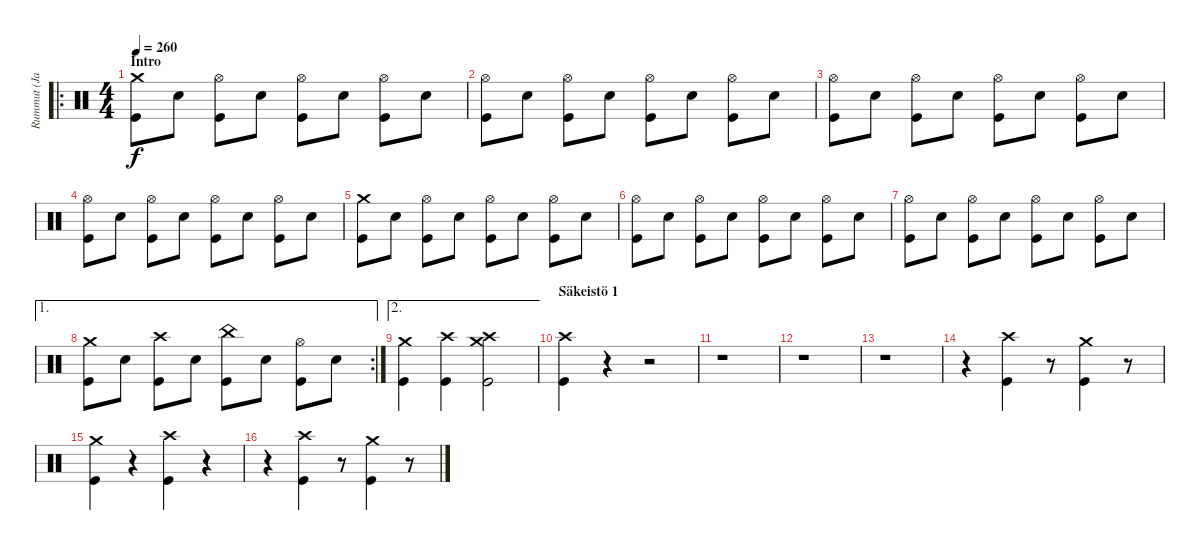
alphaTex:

\track ("Rummut (Janne)" "Rummut (Ja") {instrument percussion}
\staff {score}
\articulation defaults
\ro
\ts (4 4)
\section ("" "Intro")
\tempo 260
\clef neutral
\ks c
("Crash medium (hit)" "Kick (hit)").8{dy f} "Snare (hit) 2".8 ("Hi-Hat (open)" "Kick (hit)").8 "Snare (hit) 2".8 ("Hi-Hat (open)" "Kick (hit)").8 "Snare (hit) 2".8 ("Hi-Hat (open)" "Kick (hit)").8 "Snare (hit) 2".8 |
("Hi-Hat (open)" "Kick (hit)").8 "Snare (hit) 2".8 ("Hi-Hat (open)" "Kick (hit)").8 "Snare (hit) 2".8 ("Hi-Hat (open)" "Kick (hit)").8 "Snare (hit) 2".8 ("Hi-Hat (open)" "Kick (hit)").8 "Snare (hit) 2".8 |
("Hi-Hat (open)" "Kick (hit)").8 "Snare (hit) 2".8 ("Hi-Hat (open)" "Kick (hit)").8 "Snare (hit) 2".8 ("Hi-Hat (open)" "Kick (hit)").8 "Snare (hit) 2".8 ("Hi-Hat (open)" "Kick (hit)").8 "Snare (hit) 2".8 |
("Hi-Hat (open)" "Kick (hit)").8 "Snare (hit) 2".8 ("Hi-Hat (open)" "Kick (hit)").8 "Snare (hit) 2".8 ("Hi-Hat (open)" "Kick (hit)").8 "Snare (hit) 2".8 ("Hi-Hat (open)" "Kick (hit)").8 "Snare (hit) 2".8 |
("Crash medium (hit)" "Kick (hit)").8 "Snare (hit) 2".8 ("Hi-Hat (open)" "Kick (hit)").8 "Snare (hit) 2".8 ("Hi-Hat (open)" "Kick (hit)").8 "Snare (hit) 2".8 ("Hi-Hat (open)" "Kick (hit)").8 "Snare (hit) 2".8 |
("Hi-Hat (open)" "Kick (hit)").8 "Snare (hit) 2".8 ("Hi-Hat (open)" "Kick (hit)").8 "Snare (hit) 2".8 ("Hi-Hat (open)" "Kick (hit)").8 "Snare (hit) 2".8 ("Hi-Hat (open)" "Kick (hit)").8 "Snare (hit) 2".8 |
("Hi-Hat (open)" "Kick (hit)").8 "Snare (hit) 2".8 ("Hi-Hat (open)" "Kick (hit)").8 "Snare (hit) 2".8 ("Hi-Hat (open)" "Kick (hit)").8 "Snare (hit) 2".8 ("Hi-Hat (open)" "Kick (hit)").8 "Snare (hit) 2".8 |
\ae 1
\rc 2
("Crash medium (hit)" "Kick (hit)").8 "Snare (hit) 2".8 ("Crash high (hit)" "Kick (hit)").8 "Snare (hit) 2".8 ("China (hit)" "Kick (hit)").8 "Snare (hit) 2".8 ("Hi-Hat (open)" "Kick (hit)").8 "Snare (hit) 2".8 |
\ae 2
("Crash medium (hit)" "Kick (hit)").4 ("Crash high (hit)" "Kick (hit)").4 ("Crash medium (hit)" "Crash high (hit)" "Kick (hit)").2 |
\section ("" "Säkeistö 1")
("Crash high (hit)" "Kick (hit)").4 r.4 r.2 |
r.1 |
r.1 |
r.1 |
r.4 ("Crash high (hit)" "Kick (hit)").4 r.8 ("Crash medium (hit)" "Kick (hit)").4 r.8 |
("Crash medium (hit)" "Kick (hit)").4 r.4 ("Crash high (hit)" "Kick (hit)").4 r.4 |
r.4 ("Crash high (hit)" "Kick (hit)").4 r.8 ("Crash medium (hit)" "Kick (hit)").4 r.8
